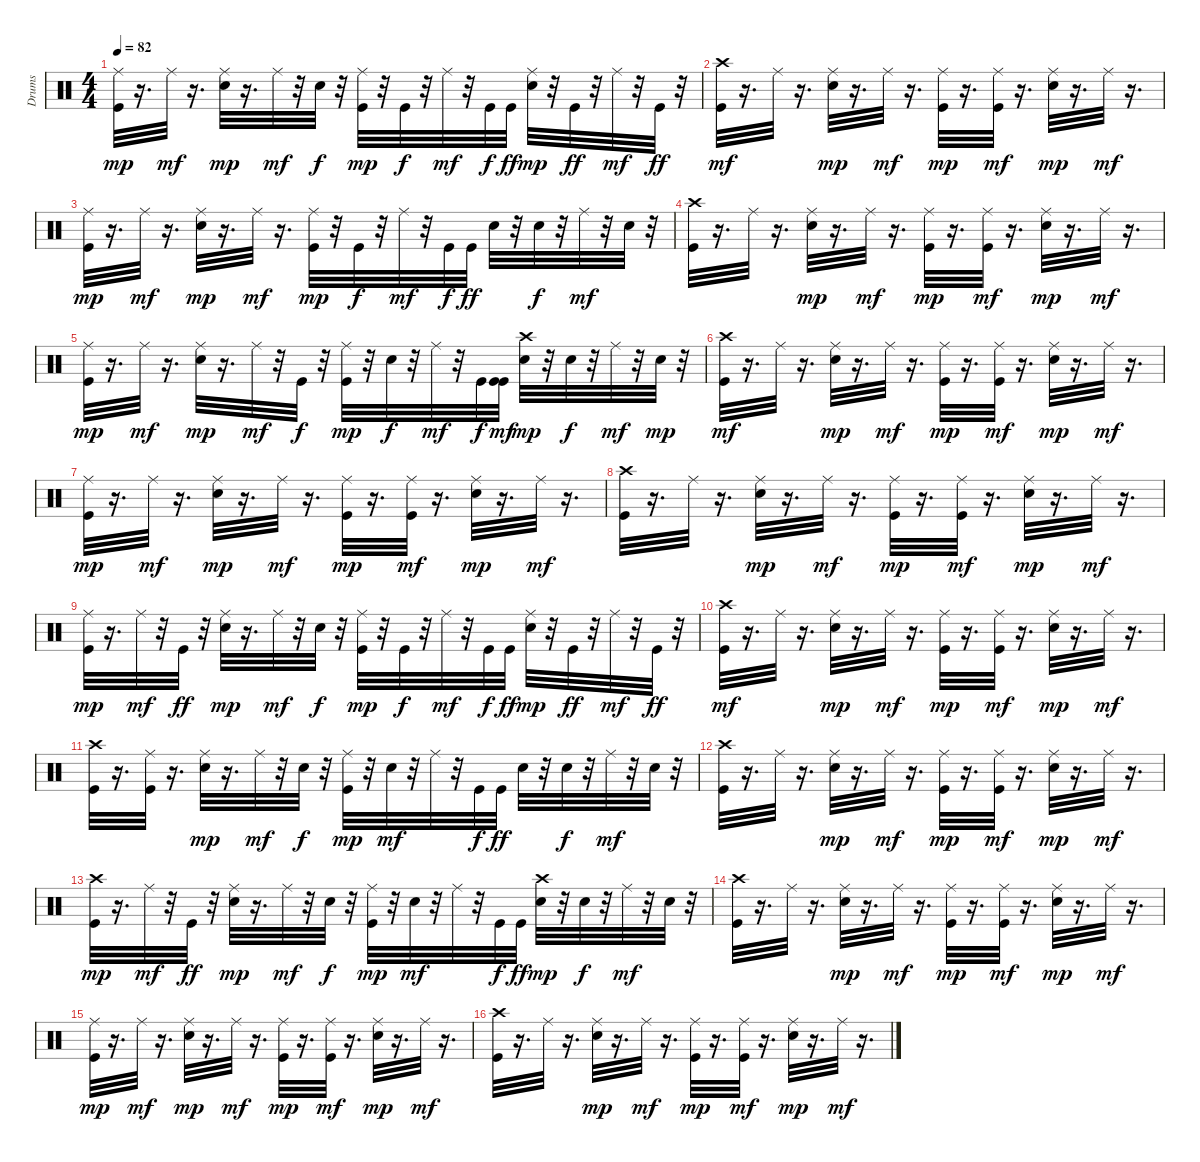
\track ("Drums" "Drums") {instrument percussion}
\staff {score}
\articulation defaults
\ts (4 4)
\tempo 82
\clef neutral
\ks c
("Kick (hit)" "Ride (middle)").32{dy mp} r.16{d} "Ride (middle)".32{dy mf} r.16{d} ("Snare (hit) 2" "Ride (middle)").32{dy mp} r.16{d} "Ride (middle)".32{dy mf} r.32 "Snare (hit) 2".32{dy f} r.32 ("Kick (hit)" "Ride (middle)").32{dy mp} r.32 "Kick (hit)".32{dy f} r.32 "Ride (middle)".32{dy mf} r.32 "Kick (hit)".32{dy f} "Kick (hit)".32{dy ff} ("Snare (hit) 2" "Ride (middle)").32{dy mp} r.32 "Kick (hit)".32{dy ff} r.32 "Ride (middle)".32{dy mf} r.32 "Kick (hit)".32{dy ff} r.32 |
("Kick (hit)" "Crash high (hit)").32{dy mf} r.16{d} "Ride (middle)".32 r.16{d} ("Snare (hit) 2" "Ride (middle)").32{dy mp} r.16{d} "Ride (middle)".32{dy mf} r.16{d} ("Kick (hit)" "Ride (middle)").32{dy mp} r.16{d} ("Kick (hit)" "Ride (middle)").32{dy mf} r.16{d} ("Snare (hit) 2" "Ride (middle)").32{dy mp} r.16{d} "Ride (middle)".32{dy mf} r.16{d} |
("Kick (hit)" "Ride (middle)").32{dy mp} r.16{d} "Ride (middle)".32{dy mf} r.16{d} ("Snare (hit) 2" "Ride (middle)").32{dy mp} r.16{d} "Ride (middle)".32{dy mf} r.16{d} ("Kick (hit)" "Ride (middle)").32{dy mp} r.32 "Kick (hit)".32{dy f} r.32 "Ride (middle)".32{dy mf} r.32 "Kick (hit)".32{dy f} "Kick (hit)".32{dy ff} "Snare (hit) 2".32 r.32 "Snare (hit) 2".32{dy f} r.32 "Ride (middle)".32{dy mf} r.32 "Snare (hit) 2".32 r.32 |
("Kick (hit)" "Crash high (hit)").32 r.16{d} "Ride (middle)".32 r.16{d} ("Snare (hit) 2" "Ride (middle)").32{dy mp} r.16{d} "Ride (middle)".32{dy mf} r.16{d} ("Kick (hit)" "Ride (middle)").32{dy mp} r.16{d} ("Kick (hit)" "Ride (middle)").32{dy mf} r.16{d} ("Snare (hit) 2" "Ride (middle)").32{dy mp} r.16{d} "Ride (middle)".32{dy mf} r.16{d} |
("Kick (hit)" "Ride (middle)").32{dy mp} r.16{d} "Ride (middle)".32{dy mf} r.16{d} ("Snare (hit) 2" "Ride (middle)").32{dy mp} r.16{d} "Ride (middle)".32{dy mf} r.32 "Kick (hit)".32{dy f} r.32 ("Kick (hit)" "Ride (middle)").32{dy mp} r.32 "Snare (hit) 2".32{dy f} r.32 "Ride (middle)".32{dy mf} r.32 "Kick (hit)".32{dy f} ("Kick (hit)" "Kick (hit)").32{dy mf} ("Snare (hit) 2" "Crash high (hit)").32{dy mp} r.32 "Snare (hit) 2".32{dy f} r.32 "Ride (middle)".32{dy mf} r.32 "Snare (hit) 2".32{dy mp} r.32 |
("Kick (hit)" "Crash high (hit)").32{dy mf} r.16{d} "Ride (middle)".32 r.16{d} ("Snare (hit) 2" "Ride (middle)").32{dy mp} r.16{d} "Ride (middle)".32{dy mf} r.16{d} ("Kick (hit)" "Ride (middle)").32{dy mp} r.16{d} ("Kick (hit)" "Ride (middle)").32{dy mf} r.16{d} ("Snare (hit) 2" "Ride (middle)").32{dy mp} r.16{d} "Ride (middle)".32{dy mf} r.16{d} |
("Kick (hit)" "Ride (middle)").32{dy mp} r.16{d} "Ride (middle)".32{dy mf} r.16{d} ("Snare (hit) 2" "Ride (middle)").32{dy mp} r.16{d} "Ride (middle)".32{dy mf} r.16{d} ("Kick (hit)" "Ride (middle)").32{dy mp} r.16{d} ("Kick (hit)" "Ride (middle)").32{dy mf} r.16{d} ("Snare (hit) 2" "Ride (middle)").32{dy mp} r.16{d} "Ride (middle)".32{dy mf} r.16{d} |
("Kick (hit)" "Crash high (hit)").32 r.16{d} "Ride (middle)".32 r.16{d} ("Snare (hit) 2" "Ride (middle)").32{dy mp} r.16{d} "Ride (middle)".32{dy mf} r.16{d} ("Kick (hit)" "Ride (middle)").32{dy mp} r.16{d} ("Kick (hit)" "Ride (middle)").32{dy mf} r.16{d} ("Snare (hit) 2" "Ride (middle)").32{dy mp} r.16{d} "Ride (middle)".32{dy mf} r.16{d} |
("Kick (hit)" "Ride (middle)").32{dy mp} r.16{d} "Ride (middle)".32{dy mf} r.32 "Kick (hit)".32{dy ff} r.32 ("Snare (hit) 2" "Ride (middle)").32{dy mp} r.16{d} "Ride (middle)".32{dy mf} r.32 "Snare (hit) 2".32{dy f} r.32 ("Kick (hit)" "Ride (middle)").32{dy mp} r.32 "Kick (hit)".32{dy f} r.32 "Ride (middle)".32{dy mf} r.32 "Kick (hit)".32{dy f} "Kick (hit)".32{dy ff} ("Snare (hit) 2" "Ride (middle)").32{dy mp} r.32 "Kick (hit)".32{dy ff} r.32 "Ride (middle)".32{dy mf} r.32 "Kick (hit)".32{dy ff} r.32 |
("Kick (hit)" "Crash high (hit)").32{dy mf} r.16{d} "Ride (middle)".32 r.16{d} ("Snare (hit) 2" "Ride (middle)").32{dy mp} r.16{d} "Ride (middle)".32{dy mf} r.16{d} ("Kick (hit)" "Ride (middle)").32{dy mp} r.16{d} ("Kick (hit)" "Ride (middle)").32{dy mf} r.16{d} ("Snare (hit) 2" "Ride (middle)").32{dy mp} r.16{d} "Ride (middle)".32{dy mf} r.16{d} |
("Kick (hit)" "Crash high (hit)").32 r.16{d} ("Kick (hit)" "Ride (middle)").32 r.16{d} ("Snare (hit) 2" "Ride (middle)").32{dy mp} r.16{d} "Ride (middle)".32{dy mf} r.32 "Snare (hit) 2".32{dy f} r.32 ("Kick (hit)" "Ride (middle)").32{dy mp} r.32 "Snare (hit) 2".32{dy mf} r.32 "Ride (middle)".32 r.32 "Kick (hit)".32{dy f} "Kick (hit)".32{dy ff} "Snare (hit) 2".32 r.32 "Snare (hit) 2".32{dy f} r.32 "Ride (middle)".32{dy mf} r.32 "Snare (hit) 2".32 r.32 |
("Kick (hit)" "Crash high (hit)").32 r.16{d} "Ride (middle)".32 r.16{d} ("Snare (hit) 2" "Ride (middle)").32{dy mp} r.16{d} "Ride (middle)".32{dy mf} r.16{d} ("Kick (hit)" "Ride (middle)").32{dy mp} r.16{d} ("Kick (hit)" "Ride (middle)").32{dy mf} r.16{d} ("Snare (hit) 2" "Ride (middle)").32{dy mp} r.16{d} "Ride (middle)".32{dy mf} r.16{d} |
("Kick (hit)" "Crash high (hit)").32{dy mp} r.16{d} "Ride (middle)".32{dy mf} r.32 "Kick (hit)".32{dy ff} r.32 ("Snare (hit) 2" "Ride (middle)").32{dy mp} r.16{d} "Ride (middle)".32{dy mf} r.32 "Snare (hit) 2".32{dy f} r.32 ("Kick (hit)" "Ride (middle)").32{dy mp} r.32 "Snare (hit) 2".32{dy mf} r.32 "Ride (middle)".32 r.32 "Kick (hit)".32{dy f} "Kick (hit)".32{dy ff} ("Snare (hit) 2" "Crash high (hit)").32{dy mp} r.32 "Snare (hit) 2".32{dy f} r.32 "Ride (middle)".32{dy mf} r.32 "Snare (hit) 2".32 r.32 |
("Kick (hit)" "Crash high (hit)").32 r.16{d} "Ride (middle)".32 r.16{d} ("Snare (hit) 2" "Ride (middle)").32{dy mp} r.16{d} "Ride (middle)".32{dy mf} r.16{d} ("Kick (hit)" "Ride (middle)").32{dy mp} r.16{d} ("Kick (hit)" "Ride (middle)").32{dy mf} r.16{d} ("Snare (hit) 2" "Ride (middle)").32{dy mp} r.16{d} "Ride (middle)".32{dy mf} r.16{d} |
("Kick (hit)" "Ride (middle)").32{dy mp} r.16{d} "Ride (middle)".32{dy mf} r.16{d} ("Snare (hit) 2" "Ride (middle)").32{dy mp} r.16{d} "Ride (middle)".32{dy mf} r.16{d} ("Kick (hit)" "Ride (middle)").32{dy mp} r.16{d} ("Kick (hit)" "Ride (middle)").32{dy mf} r.16{d} ("Snare (hit) 2" "Ride (middle)").32{dy mp} r.16{d} "Ride (middle)".32{dy mf} r.16{d} |
("Kick (hit)" "Crash high (hit)").32 r.16{d} "Ride (middle)".32 r.16{d} ("Snare (hit) 2" "Ride (middle)").32{dy mp} r.16{d} "Ride (middle)".32{dy mf} r.16{d} ("Kick (hit)" "Ride (middle)").32{dy mp} r.16{d} ("Kick (hit)" "Ride (middle)").32{dy mf} r.16{d} ("Snare (hit) 2" "Ride (middle)").32{dy mp} r.16{d} "Ride (middle)".32{dy mf} r.16{d}
